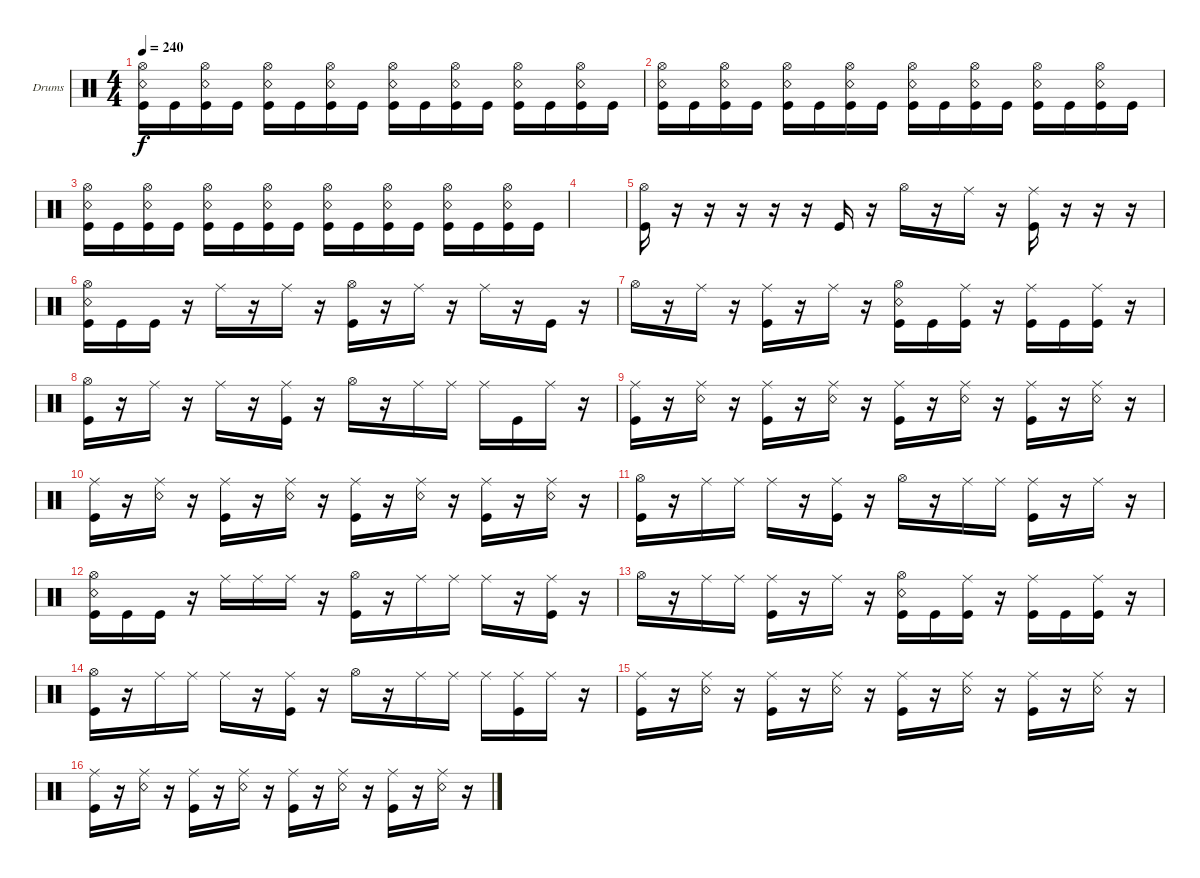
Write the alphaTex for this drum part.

\bracketExtendMode groupsimilarinstruments
\firstSystemTrackNameOrientation horizontal
\otherSystemsTrackNameOrientation horizontal
\track ("Drumkit" "Drums") {instrument percussion}
\staff {score}
\articulation defaults
\ts (4 4)
\tempo 240
\clef neutral
\ks c
("Kick (hit)" "Snare (rim shot)" "Hi-Hat (open)").16{dy f} "Kick (hit)".16 ("Kick (hit)" "Snare (rim shot)" "Hi-Hat (open)").16 "Kick (hit)".16 ("Kick (hit)" "Snare (rim shot)" "Hi-Hat (open)").16 "Kick (hit)".16 ("Kick (hit)" "Snare (rim shot)" "Hi-Hat (open)").16 "Kick (hit)".16 ("Kick (hit)" "Snare (rim shot)" "Hi-Hat (open)").16 "Kick (hit)".16 ("Kick (hit)" "Snare (rim shot)" "Hi-Hat (open)").16 "Kick (hit)".16 ("Kick (hit)" "Snare (rim shot)" "Hi-Hat (open)").16 "Kick (hit)".16 ("Kick (hit)" "Snare (rim shot)" "Hi-Hat (open)").16 "Kick (hit)".16 |
("Kick (hit)" "Snare (rim shot)" "Hi-Hat (open)").16 "Kick (hit)".16 ("Kick (hit)" "Snare (rim shot)" "Hi-Hat (open)").16 "Kick (hit)".16 ("Kick (hit)" "Snare (rim shot)" "Hi-Hat (open)").16 "Kick (hit)".16 ("Kick (hit)" "Snare (rim shot)" "Hi-Hat (open)").16 "Kick (hit)".16 ("Kick (hit)" "Snare (rim shot)" "Hi-Hat (open)").16 "Kick (hit)".16 ("Kick (hit)" "Snare (rim shot)" "Hi-Hat (open)").16 "Kick (hit)".16 ("Kick (hit)" "Snare (rim shot)" "Hi-Hat (open)").16 "Kick (hit)".16 ("Kick (hit)" "Snare (rim shot)" "Hi-Hat (open)").16 "Kick (hit)".16 |
("Kick (hit)" "Snare (rim shot)" "Hi-Hat (open)").16 "Kick (hit)".16 ("Kick (hit)" "Snare (rim shot)" "Hi-Hat (open)").16 "Kick (hit)".16 ("Kick (hit)" "Snare (rim shot)" "Hi-Hat (open)").16 "Kick (hit)".16 ("Kick (hit)" "Snare (rim shot)" "Hi-Hat (open)").16 "Kick (hit)".16 ("Kick (hit)" "Snare (rim shot)" "Hi-Hat (open)").16 "Kick (hit)".16 ("Kick (hit)" "Snare (rim shot)" "Hi-Hat (open)").16 "Kick (hit)".16 ("Kick (hit)" "Snare (rim shot)" "Hi-Hat (open)").16 "Kick (hit)".16 ("Kick (hit)" "Snare (rim shot)" "Hi-Hat (open)").16 "Kick (hit)".16 |
|
("Hi-Hat (open)" "Kick (hit)").16 r.16 r.16 r.16 r.16 r.16 "Kick (hit)".16 r.16 "Hi-Hat (open)".16 r.16 "Ride (middle)".16 r.16 ("Kick (hit)" "Ride (middle)").16 r.16 r.16 r.16 |
("Hi-Hat (open)" "Snare (rim shot)" "Kick (hit)").16 "Kick (hit)".16 "Kick (hit)".16 r.16 "Ride (middle)".16 r.16 "Ride (middle)".16 r.16 ("Hi-Hat (open)" "Kick (hit)").16 r.16 "Ride (middle)".16 r.16 "Ride (middle)".16 r.16 "Kick (hit)".16 r.16 |
"Hi-Hat (open)".16 r.16 "Ride (middle)".16 r.16 ("Kick (hit)" "Ride (middle)").16 r.16 "Ride (middle)".16 r.16 ("Hi-Hat (open)" "Snare (rim shot)" "Kick (hit)").16 "Kick (hit)".16 ("Kick (hit)" "Ride (middle)").16 r.16 ("Kick (hit)" "Ride (middle)").16 "Kick (hit)".16 ("Kick (hit)" "Ride (middle)").16 r.16 |
("Hi-Hat (open)" "Kick (hit)").16 r.16 "Ride (middle)".16 r.16 "Ride (middle)".16 r.16 ("Kick (hit)" "Ride (middle)").16 r.16 "Hi-Hat (open)".16 r.16 "Ride (middle)".16 "Ride (middle)".16 "Ride (middle)".16 "Kick (hit)".16 "Ride (middle)".16 r.16 |
("Kick (hit)" "Ride (middle)").16 r.16 ("Ride (middle)" "Snare (rim shot)").16 r.16 ("Kick (hit)" "Ride (middle)").16 r.16 ("Ride (middle)" "Snare (rim shot)").16 r.16 ("Kick (hit)" "Ride (middle)").16 r.16 ("Ride (middle)" "Snare (rim shot)").16 r.16 ("Kick (hit)" "Ride (middle)").16 r.16 ("Ride (middle)" "Snare (rim shot)").16 r.16 |
("Kick (hit)" "Ride (middle)").16 r.16 ("Ride (middle)" "Snare (rim shot)").16 r.16 ("Kick (hit)" "Ride (middle)").16 r.16 ("Ride (middle)" "Snare (rim shot)").16 r.16 ("Kick (hit)" "Ride (middle)").16 r.16 ("Ride (middle)" "Snare (rim shot)").16 r.16 ("Kick (hit)" "Ride (middle)").16 r.16 ("Ride (middle)" "Snare (rim shot)").16 r.16 |
("Hi-Hat (open)" "Kick (hit)").16 r.16 "Ride (middle)".16 "Ride (middle)".16 "Ride (middle)".16 r.16 ("Kick (hit)" "Ride (middle)").16 r.16 "Hi-Hat (open)".16 r.16 "Ride (middle)".16 "Ride (middle)".16 ("Kick (hit)" "Ride (middle)").16 r.16 "Ride (middle)".16 r.16 |
("Hi-Hat (open)" "Snare (rim shot)" "Kick (hit)").16 "Kick (hit)".16 "Kick (hit)".16 r.16 "Ride (middle)".16 "Ride (middle)".16 "Ride (middle)".16 r.16 ("Hi-Hat (open)" "Kick (hit)").16 r.16 "Ride (middle)".16 "Ride (middle)".16 "Ride (middle)".16 r.16 ("Kick (hit)" "Ride (middle)").16 r.16 |
"Hi-Hat (open)".16 r.16 "Ride (middle)".16 "Ride (middle)".16 ("Kick (hit)" "Ride (middle)").16 r.16 "Ride (middle)".16 r.16 ("Hi-Hat (open)" "Snare (rim shot)" "Kick (hit)").16 "Kick (hit)".16 ("Kick (hit)" "Ride (middle)").16 r.16 ("Kick (hit)" "Ride (middle)").16 "Kick (hit)".16 ("Kick (hit)" "Ride (middle)").16 r.16 |
("Hi-Hat (open)" "Kick (hit)").16 r.16 "Ride (middle)".16 "Ride (middle)".16 "Ride (middle)".16 r.16 ("Kick (hit)" "Ride (middle)").16 r.16 "Hi-Hat (open)".16 r.16 "Ride (middle)".16 "Ride (middle)".16 "Ride (middle)".16 ("Kick (hit)" "Ride (middle)").16 "Ride (middle)".16 r.16 |
("Kick (hit)" "Ride (middle)").16 r.16 ("Ride (middle)" "Snare (rim shot)").16 r.16 ("Kick (hit)" "Ride (middle)").16 r.16 ("Ride (middle)" "Snare (rim shot)").16 r.16 ("Kick (hit)" "Ride (middle)").16 r.16 ("Ride (middle)" "Snare (rim shot)").16 r.16 ("Kick (hit)" "Ride (middle)").16 r.16 ("Ride (middle)" "Snare (rim shot)").16 r.16 |
("Kick (hit)" "Ride (middle)").16 r.16 ("Ride (middle)" "Snare (rim shot)").16 r.16 ("Kick (hit)" "Ride (middle)").16 r.16 ("Ride (middle)" "Snare (rim shot)").16 r.16 ("Kick (hit)" "Ride (middle)").16 r.16 ("Ride (middle)" "Snare (rim shot)").16 r.16 ("Kick (hit)" "Ride (middle)").16 r.16 ("Ride (middle)" "Snare (rim shot)").16 r.16
